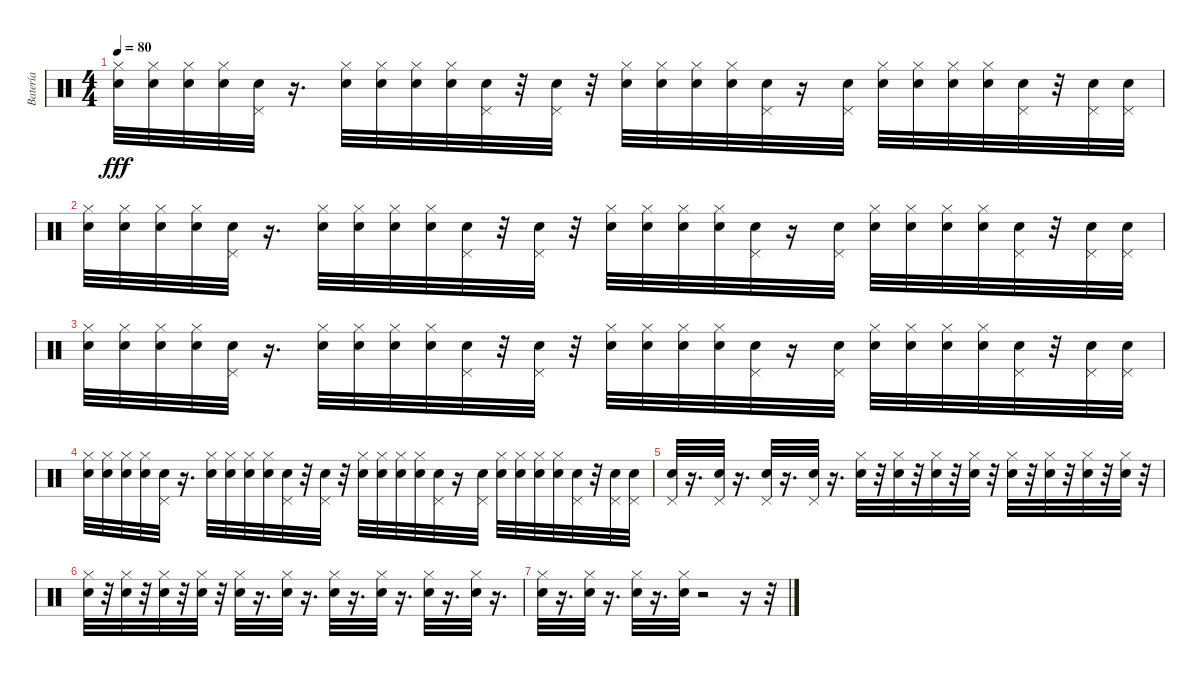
\track ("Batería" "Batería") {instrument percussion}
\staff {score}
\articulation defaults
\ts (4 4)
\tempo 80
\clef neutral
\ks c
("Snare (hit) 2" "Hi-Hat (closed)").32{dy fff} ("Snare (hit) 2" "Hi-Hat (closed)").32 ("Snare (hit) 2" "Hi-Hat (closed)").32 ("Snare (hit) 2" "Hi-Hat (closed)").32 ("Electric Snare (hit)" "Pedal Hi-Hat (hit)").32 r.16{d} ("Snare (hit) 2" "Hi-Hat (closed)").32 ("Snare (hit) 2" "Hi-Hat (closed)").32 ("Snare (hit) 2" "Hi-Hat (closed)").32 ("Snare (hit) 2" "Hi-Hat (closed)").32 ("Pedal Hi-Hat (hit)" "Electric Snare (hit)").32 r.32 ("Electric Snare (hit)" "Pedal Hi-Hat (hit)").32 r.32 ("Snare (hit) 2" "Hi-Hat (closed)").32 ("Snare (hit) 2" "Hi-Hat (closed)").32 ("Snare (hit) 2" "Hi-Hat (closed)").32 ("Snare (hit) 2" "Hi-Hat (closed)").32 ("Pedal Hi-Hat (hit)" "Electric Snare (hit)").32 r.16 ("Electric Snare (hit)" "Pedal Hi-Hat (hit)").32 ("Snare (hit) 2" "Hi-Hat (closed)").32 ("Snare (hit) 2" "Hi-Hat (closed)").32 ("Snare (hit) 2" "Hi-Hat (closed)").32 ("Snare (hit) 2" "Hi-Hat (closed)").32 ("Pedal Hi-Hat (hit)" "Electric Snare (hit)").32 r.32 ("Electric Snare (hit)" "Pedal Hi-Hat (hit)").32 ("Pedal Hi-Hat (hit)" "Electric Snare (hit)").32 |
("Snare (hit) 2" "Hi-Hat (closed)").32 ("Snare (hit) 2" "Hi-Hat (closed)").32 ("Snare (hit) 2" "Hi-Hat (closed)").32 ("Snare (hit) 2" "Hi-Hat (closed)").32 ("Electric Snare (hit)" "Pedal Hi-Hat (hit)").32 r.16{d} ("Snare (hit) 2" "Hi-Hat (closed)").32 ("Snare (hit) 2" "Hi-Hat (closed)").32 ("Snare (hit) 2" "Hi-Hat (closed)").32 ("Snare (hit) 2" "Hi-Hat (closed)").32 ("Pedal Hi-Hat (hit)" "Electric Snare (hit)").32 r.32 ("Electric Snare (hit)" "Pedal Hi-Hat (hit)").32 r.32 ("Snare (hit) 2" "Hi-Hat (closed)").32 ("Snare (hit) 2" "Hi-Hat (closed)").32 ("Snare (hit) 2" "Hi-Hat (closed)").32 ("Snare (hit) 2" "Hi-Hat (closed)").32 ("Pedal Hi-Hat (hit)" "Electric Snare (hit)").32 r.16 ("Electric Snare (hit)" "Pedal Hi-Hat (hit)").32 ("Snare (hit) 2" "Hi-Hat (closed)").32 ("Snare (hit) 2" "Hi-Hat (closed)").32 ("Snare (hit) 2" "Hi-Hat (closed)").32 ("Snare (hit) 2" "Hi-Hat (closed)").32 ("Pedal Hi-Hat (hit)" "Electric Snare (hit)").32 r.32 ("Electric Snare (hit)" "Pedal Hi-Hat (hit)").32 ("Pedal Hi-Hat (hit)" "Electric Snare (hit)").32 |
("Snare (hit) 2" "Hi-Hat (closed)").32 ("Snare (hit) 2" "Hi-Hat (closed)").32 ("Snare (hit) 2" "Hi-Hat (closed)").32 ("Snare (hit) 2" "Hi-Hat (closed)").32 ("Electric Snare (hit)" "Pedal Hi-Hat (hit)").32 r.16{d} ("Snare (hit) 2" "Hi-Hat (closed)").32 ("Snare (hit) 2" "Hi-Hat (closed)").32 ("Snare (hit) 2" "Hi-Hat (closed)").32 ("Snare (hit) 2" "Hi-Hat (closed)").32 ("Pedal Hi-Hat (hit)" "Electric Snare (hit)").32 r.32 ("Electric Snare (hit)" "Pedal Hi-Hat (hit)").32 r.32 ("Snare (hit) 2" "Hi-Hat (closed)").32 ("Snare (hit) 2" "Hi-Hat (closed)").32 ("Snare (hit) 2" "Hi-Hat (closed)").32 ("Snare (hit) 2" "Hi-Hat (closed)").32 ("Pedal Hi-Hat (hit)" "Electric Snare (hit)").32 r.16 ("Electric Snare (hit)" "Pedal Hi-Hat (hit)").32 ("Snare (hit) 2" "Hi-Hat (closed)").32 ("Snare (hit) 2" "Hi-Hat (closed)").32 ("Snare (hit) 2" "Hi-Hat (closed)").32 ("Snare (hit) 2" "Hi-Hat (closed)").32 ("Pedal Hi-Hat (hit)" "Electric Snare (hit)").32 r.32 ("Electric Snare (hit)" "Pedal Hi-Hat (hit)").32 ("Pedal Hi-Hat (hit)" "Electric Snare (hit)").32 |
("Snare (hit) 2" "Hi-Hat (closed)").32 ("Snare (hit) 2" "Hi-Hat (closed)").32 ("Snare (hit) 2" "Hi-Hat (closed)").32 ("Snare (hit) 2" "Hi-Hat (closed)").32 ("Electric Snare (hit)" "Pedal Hi-Hat (hit)").32 r.16{d} ("Snare (hit) 2" "Hi-Hat (closed)").32 ("Snare (hit) 2" "Hi-Hat (closed)").32 ("Snare (hit) 2" "Hi-Hat (closed)").32 ("Snare (hit) 2" "Hi-Hat (closed)").32 ("Pedal Hi-Hat (hit)" "Electric Snare (hit)").32 r.32 ("Electric Snare (hit)" "Pedal Hi-Hat (hit)").32 r.32 ("Snare (hit) 2" "Hi-Hat (closed)").32 ("Snare (hit) 2" "Hi-Hat (closed)").32 ("Snare (hit) 2" "Hi-Hat (closed)").32 ("Snare (hit) 2" "Hi-Hat (closed)").32 ("Pedal Hi-Hat (hit)" "Electric Snare (hit)").32 r.16 ("Electric Snare (hit)" "Pedal Hi-Hat (hit)").32 ("Snare (hit) 2" "Hi-Hat (closed)").32 ("Snare (hit) 2" "Hi-Hat (closed)").32 ("Snare (hit) 2" "Hi-Hat (closed)").32 ("Snare (hit) 2" "Hi-Hat (closed)").32 ("Pedal Hi-Hat (hit)" "Electric Snare (hit)").32 r.32 ("Electric Snare (hit)" "Pedal Hi-Hat (hit)").32 ("Pedal Hi-Hat (hit)" "Electric Snare (hit)").32 |
("Pedal Hi-Hat (hit)" "Electric Snare (hit)").32 r.16{d} ("Electric Snare (hit)" "Pedal Hi-Hat (hit)").32 r.16{d} ("Pedal Hi-Hat (hit)" "Electric Snare (hit)").32 r.16{d} ("Electric Snare (hit)" "Pedal Hi-Hat (hit)").32 r.16{d} ("Snare (hit) 2" "Hi-Hat (closed)").32 r.32 ("Snare (hit) 2" "Hi-Hat (closed)").32 r.32 ("Snare (hit) 2" "Hi-Hat (closed)").32 r.32 ("Snare (hit) 2" "Hi-Hat (closed)").32 r.32 ("Snare (hit) 2" "Hi-Hat (closed)").32 r.32 ("Snare (hit) 2" "Hi-Hat (closed)").32 r.32 ("Snare (hit) 2" "Hi-Hat (closed)").32 r.32 ("Snare (hit) 2" "Hi-Hat (closed)").32 r.32 |
("Snare (hit) 2" "Hi-Hat (closed)").32 r.32 ("Snare (hit) 2" "Hi-Hat (closed)").32 r.32 ("Snare (hit) 2" "Hi-Hat (closed)").32 r.32 ("Snare (hit) 2" "Hi-Hat (closed)").32 r.32 ("Snare (hit) 2" "Hi-Hat (closed)").32 r.16{d} ("Snare (hit) 2" "Hi-Hat (closed)").32 r.16{d} ("Snare (hit) 2" "Hi-Hat (closed)").32 r.16{d} ("Snare (hit) 2" "Hi-Hat (closed)").32 r.16{d} ("Snare (hit) 2" "Hi-Hat (closed)").32 r.16{d} ("Snare (hit) 2" "Hi-Hat (closed)").32 r.16{d} |
("Snare (hit) 2" "Hi-Hat (closed)").32 r.16{d} ("Snare (hit) 2" "Hi-Hat (closed)").32 r.16{d} ("Snare (hit) 2" "Hi-Hat (closed)").32 r.16{d} ("Snare (hit) 2" "Hi-Hat (closed)").32 r.2 r.16 r.32
